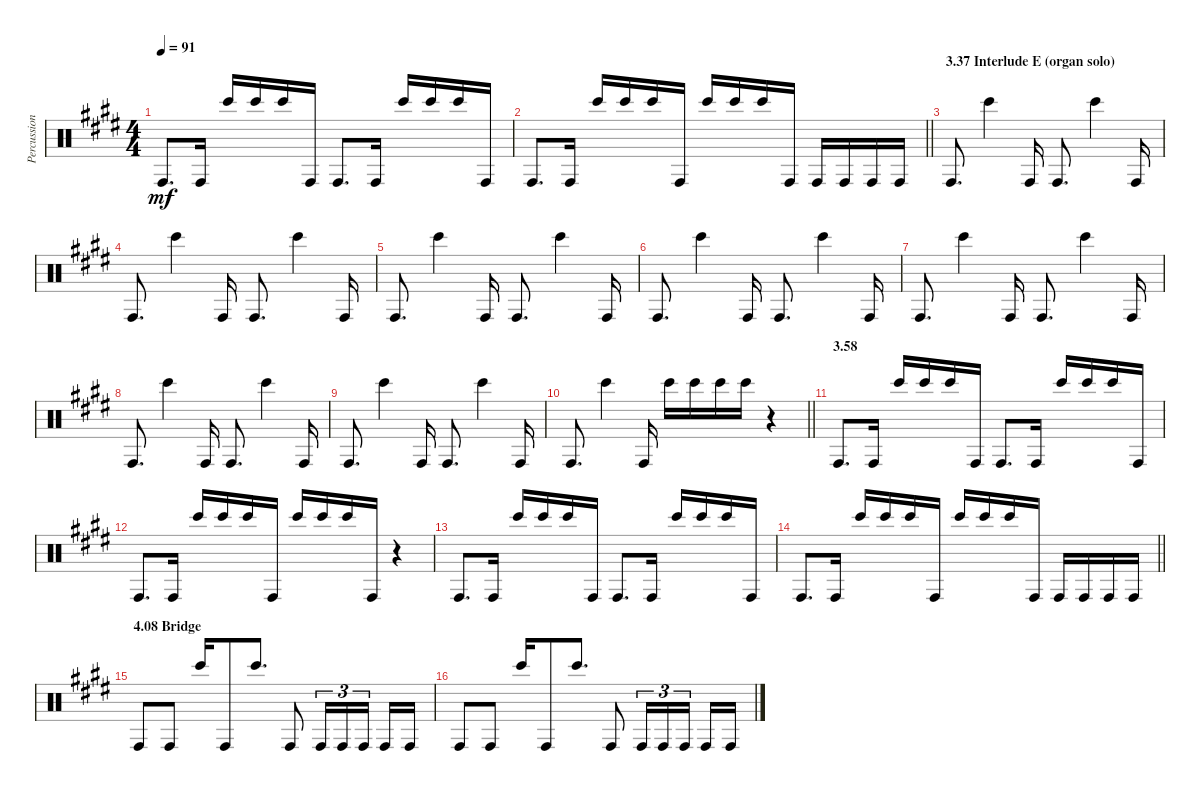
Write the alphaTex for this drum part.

\track ("Percussion" "Percussion") {instrument percussion}
\staff {score}
\articulation defaults
\ts (4 4)
\tempo 91
\clef neutral
\ks e "Conga high (hit)".8{d dy mf} "Conga high (hit)".16 "Bongo High (hit)".16 "Bongo High (hit)".16 "Bongo High (hit)".16 "Conga high (hit)".16 "Conga high (hit)".8{d} "Conga high (hit)".16 "Bongo High (hit)".16 "Bongo High (hit)".16 "Bongo High (hit)".16 "Conga high (hit)".16
|
\barLineRight lightlight "Conga high (hit)".8{d} "Conga high (hit)".16 "Bongo High (hit)".16 "Bongo High (hit)".16 "Bongo High (hit)".16 "Conga high (hit)".16 "Bongo High (hit)".16 "Bongo High (hit)".16 "Bongo High (hit)".16 "Conga high (hit)".16 "Conga high (hit)".16 "Conga high (hit)".16 "Conga high (hit)".16 "Conga high (hit)".16
|
\section ("" "3.37 Interlude E (organ solo)")
"Conga high (hit)".8{d} "Bongo High (hit)".4 "Conga high (hit)".16 "Conga high (hit)".8{d} "Bongo High (hit)".4 "Conga high (hit)".16 |
"Conga high (hit)".8{d} "Bongo High (hit)".4 "Conga high (hit)".16 "Conga high (hit)".8{d} "Bongo High (hit)".4 "Conga high (hit)".16 |
"Conga high (hit)".8{d} "Bongo High (hit)".4 "Conga high (hit)".16 "Conga high (hit)".8{d} "Bongo High (hit)".4 "Conga high (hit)".16 |
"Conga high (hit)".8{d} "Bongo High (hit)".4 "Conga high (hit)".16 "Conga high (hit)".8{d} "Bongo High (hit)".4 "Conga high (hit)".16 |
"Conga high (hit)".8{d} "Bongo High (hit)".4 "Conga high (hit)".16 "Conga high (hit)".8{d} "Bongo High (hit)".4 "Conga high (hit)".16 |
"Conga high (hit)".8{d} "Bongo High (hit)".4 "Conga high (hit)".16 "Conga high (hit)".8{d} "Bongo High (hit)".4 "Conga high (hit)".16 |
"Conga high (hit)".8{d} "Bongo High (hit)".4 "Conga high (hit)".16 "Conga high (hit)".8{d} "Bongo High (hit)".4 "Conga high (hit)".16 |
\barLineRight lightlight "Conga high (hit)".8{d} "Bongo High (hit)".4 "Conga high (hit)".16 "Bongo High (hit)".16 "Bongo High (hit)".16 "Bongo High (hit)".16 "Bongo High (hit)".16
r.4 |
\section ("" "3.58")
"Conga high (hit)".8{d} "Conga high (hit)".16 "Bongo High (hit)".16 "Bongo High (hit)".16 "Bongo High (hit)".16 "Conga high (hit)".16 "Conga high (hit)".8{d} "Conga high (hit)".16 "Bongo High (hit)".16 "Bongo High (hit)".16 "Bongo High (hit)".16 "Conga high (hit)".16 |
"Conga high (hit)".8{d} "Conga high (hit)".16 "Bongo High (hit)".16 "Bongo High (hit)".16 "Bongo High (hit)".16 "Conga high (hit)".16 "Bongo High (hit)".16 "Bongo High (hit)".16 "Bongo High (hit)".16 "Conga high (hit)".16 r.4 |
"Conga high (hit)".8{d} "Conga high (hit)".16 "Bongo High (hit)".16 "Bongo High (hit)".16 "Bongo High (hit)".16 "Conga high (hit)".16 "Conga high (hit)".8{d} "Conga high (hit)".16 "Bongo High (hit)".16 "Bongo High (hit)".16 "Bongo High (hit)".16 "Conga high (hit)".16 |
\barLineRight lightlight "Conga high (hit)".8{d} "Conga high (hit)".16 "Bongo High (hit)".16 "Bongo High (hit)".16 "Bongo High (hit)".16 "Conga high (hit)".16 "Bongo High (hit)".16 "Bongo High (hit)".16 "Bongo High (hit)".16 "Conga high (hit)".16 "Conga high (hit)".16 "Conga high (hit)".16 "Conga high (hit)".16 "Conga high (hit)".16
|
\section ("" "4.08 Bridge")
"Conga high (hit)".8 "Conga high (hit)".8 "Bongo High (hit)".16 "Conga high (hit)".8 "Bongo High (hit)".8{d} "Conga high (hit)".8 "Conga high (hit)".16{tu (3 2)} "Conga high (hit)".16{tu (3 2)} "Conga high (hit)".16{tu (3 2) beam splitsecondary} "Conga high (hit)".16 "Conga high (hit)".16 |
"Conga high (hit)".8 "Conga high (hit)".8 "Bongo High (hit)".16 "Conga high (hit)".8 "Bongo High (hit)".8{d} "Conga high (hit)".8 "Conga high (hit)".16{tu (3 2)} "Conga high (hit)".16{tu (3 2)} "Conga high (hit)".16{tu (3 2) beam splitsecondary} "Conga high (hit)".16 "Conga high (hit)".16
